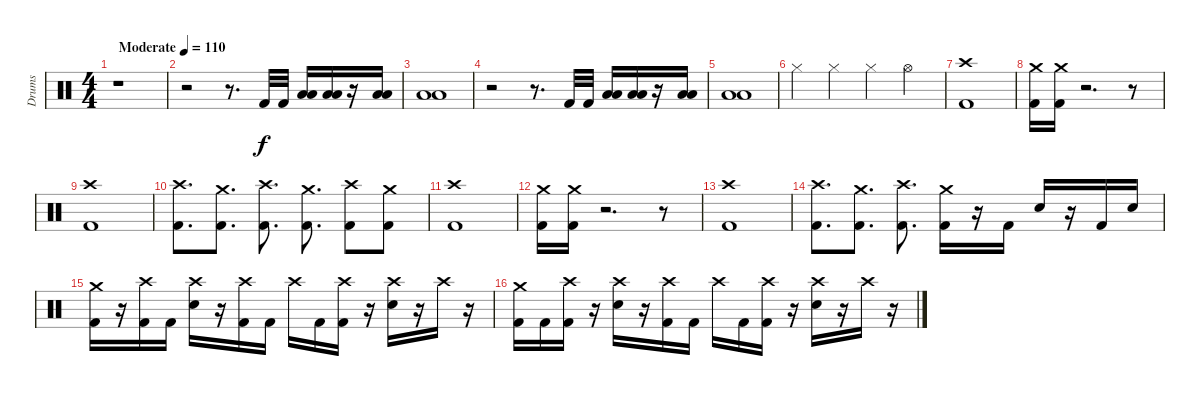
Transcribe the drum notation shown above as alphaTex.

\track ("Drums" "Drums") {mute instrument percussion}
\staff {score}
\articulation defaults
\ts (4 4)
\tempo (110 "Moderate")
\clef neutral
\ks c
r.1{dy f} |
r.2 r.8{d} "Kick (hit) 2".32 "Kick (hit) 2".32 ("Low Tom (hit)" "Low Floor Tom (hit)").16 ("Low Tom (hit)" "Low Floor Tom (hit)").16 r.16 ("Low Tom (hit)" "Low Floor Tom (hit)").16 |
("Low Tom (hit)" "Low Floor Tom (hit)").1 |
r.2 r.8{d} "Kick (hit) 2".32 "Kick (hit) 2".32 ("Low Tom (hit)" "Low Floor Tom (hit)").16 ("Low Tom (hit)" "Low Floor Tom (hit)").16 r.16 ("Low Tom (hit)" "Low Floor Tom (hit)").16 |
("Low Tom (hit)" "Low Floor Tom (hit)").1 |
"Hi-Hat (closed)".4 "Hi-Hat (closed)".4 "Hi-Hat (closed)".4 "Hi-Hat (open)".4 |
("Crash high (hit)" "Kick (hit) 2").1 |
("Crash medium (hit)" "Kick (hit) 2").16 ("Crash medium (hit)" "Kick (hit) 2").16 r.2{d} r.8 |
("Crash high (hit)" "Kick (hit) 2").1 |
("Crash high (hit)" "Kick (hit) 2").8{d} ("Crash medium (hit)" "Kick (hit) 2").8{d} ("Crash high (hit)" "Kick (hit) 2").8{d} ("Crash medium (hit)" "Kick (hit) 2").8{d} ("Crash high (hit)" "Kick (hit) 2").8 ("Crash medium (hit)" "Kick (hit) 2").8 |
("Crash high (hit)" "Kick (hit) 2").1 |
("Crash medium (hit)" "Kick (hit) 2").16 ("Crash medium (hit)" "Kick (hit) 2").16 r.2{d} r.8 |
("Crash high (hit)" "Kick (hit) 2").1 |
("Crash high (hit)" "Kick (hit) 2").8{d} ("Crash medium (hit)" "Kick (hit) 2").8{d} ("Crash high (hit)" "Kick (hit) 2").8{d} ("Crash medium (hit)" "Kick (hit) 2").16 r.16 "Kick (hit) 2".16 "Electric Snare (hit)".16 r.16 "Kick (hit) 2".16 "Electric Snare (hit)".16 |
("Crash medium (hit)" "Kick (hit) 2").16 r.16 ("Crash high (hit)" "Kick (hit) 2").16 "Kick (hit) 2".16 ("Crash high (hit)" "Electric Snare (hit)").16 r.16 ("Crash high (hit)" "Kick (hit) 2").16 "Kick (hit) 2".16 "Crash high (hit)".16 "Kick (hit) 2".16 ("Crash high (hit)" "Kick (hit) 2").16 r.16 ("Crash high (hit)" "Electric Snare (hit)").16 r.16 "Crash high (hit)".16 r.16 |
("Crash medium (hit)" "Kick (hit) 2").16 "Kick (hit) 2".16 ("Crash high (hit)" "Kick (hit) 2").16 r.16 ("Crash high (hit)" "Electric Snare (hit)").16 r.16 ("Crash high (hit)" "Kick (hit) 2").16 "Kick (hit) 2".16 "Crash high (hit)".16 "Kick (hit) 2".16 ("Crash high (hit)" "Kick (hit) 2").16 r.16 ("Crash high (hit)" "Electric Snare (hit)").16 r.16 "Crash high (hit)".16 r.16
